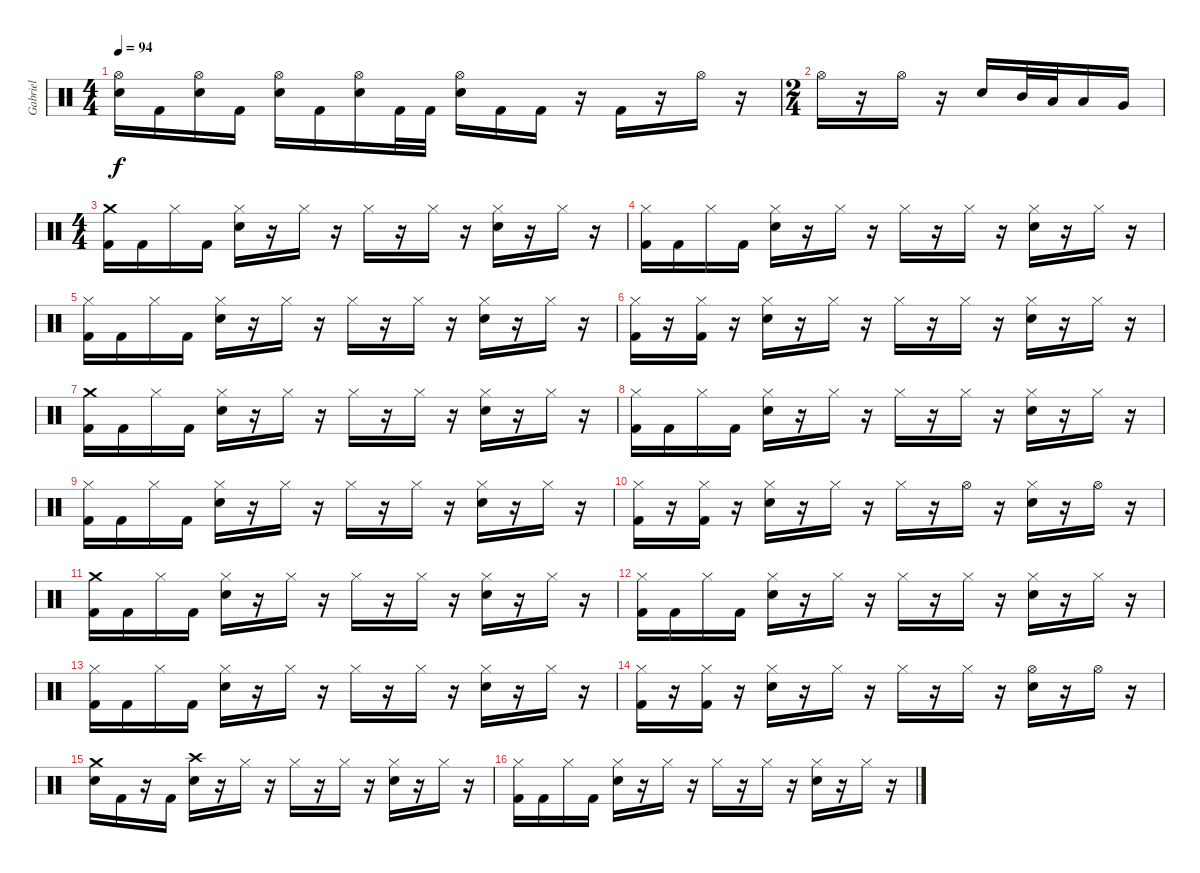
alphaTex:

\track ("Gabriel" "Gabriel") {instrument percussion}
\staff {score}
\articulation defaults
\ts (4 4)
\tempo 94
\clef neutral
\ks c
("Hi-Hat (open)" "Electric Snare (hit)").16{dy f} "Kick (hit) 2".16 ("Hi-Hat (open)" "Electric Snare (hit)").16 "Kick (hit) 2".16 ("Hi-Hat (open)" "Electric Snare (hit)").16 "Kick (hit) 2".16 ("Hi-Hat (open)" "Electric Snare (hit)").16 "Kick (hit) 2".32 "Kick (hit) 2".32 ("Hi-Hat (open)" "Electric Snare (hit)").16 "Kick (hit) 2".16 "Kick (hit) 2".16 r.16 "Kick (hit) 2".16 r.16 "Hi-Hat (open)".16 r.16 |
\ts (2 4)
"Hi-Hat (open)".16 r.16 "Hi-Hat (open)".16 r.16 "Electric Snare (hit)".16 "Mid Tom (hit)".32 "Low Tom (hit)".32 "Low Tom (hit)".16 "Very Low Tom (hit)".16 |
\ts (4 4)
("Crash medium (hit)" "Kick (hit) 2").16 "Kick (hit) 2".16 "Hi-Hat (closed)".16 "Kick (hit) 2".16 ("Hi-Hat (closed)" "Electric Snare (hit)").16 r.16 "Hi-Hat (closed)".16 r.16 "Hi-Hat (closed)".16 r.16 "Hi-Hat (closed)".16 r.16 ("Hi-Hat (closed)" "Electric Snare (hit)").16 r.16 "Hi-Hat (closed)".16 r.16 |
("Hi-Hat (closed)" "Kick (hit) 2").16 "Kick (hit) 2".16 "Hi-Hat (closed)".16 "Kick (hit) 2".16 ("Hi-Hat (closed)" "Electric Snare (hit)").16 r.16 "Hi-Hat (closed)".16 r.16 "Hi-Hat (closed)".16 r.16 "Hi-Hat (closed)".16 r.16 ("Hi-Hat (closed)" "Electric Snare (hit)").16 r.16 "Hi-Hat (closed)".16 r.16 |
("Hi-Hat (closed)" "Kick (hit) 2").16 "Kick (hit) 2".16 "Hi-Hat (closed)".16 "Kick (hit) 2".16 ("Hi-Hat (closed)" "Electric Snare (hit)").16 r.16 "Hi-Hat (closed)".16 r.16 "Hi-Hat (closed)".16 r.16 "Hi-Hat (closed)".16 r.16 ("Hi-Hat (closed)" "Electric Snare (hit)").16 r.16 "Hi-Hat (closed)".16 r.16 |
("Hi-Hat (closed)" "Kick (hit) 2").16 r.16 ("Hi-Hat (closed)" "Kick (hit) 2").16 r.16 ("Hi-Hat (closed)" "Electric Snare (hit)").16 r.16 "Hi-Hat (closed)".16 r.16 "Hi-Hat (closed)".16 r.16 "Hi-Hat (closed)".16 r.16 ("Hi-Hat (closed)" "Electric Snare (hit)").16 r.16 "Hi-Hat (closed)".16 r.16 |
("Crash medium (hit)" "Kick (hit) 2").16 "Kick (hit) 2".16 "Hi-Hat (closed)".16 "Kick (hit) 2".16 ("Hi-Hat (closed)" "Electric Snare (hit)").16 r.16 "Hi-Hat (closed)".16 r.16 "Hi-Hat (closed)".16 r.16 "Hi-Hat (closed)".16 r.16 ("Hi-Hat (closed)" "Electric Snare (hit)").16 r.16 "Hi-Hat (closed)".16 r.16 |
("Hi-Hat (closed)" "Kick (hit) 2").16 "Kick (hit) 2".16 "Hi-Hat (closed)".16 "Kick (hit) 2".16 ("Hi-Hat (closed)" "Electric Snare (hit)").16 r.16 "Hi-Hat (closed)".16 r.16 "Hi-Hat (closed)".16 r.16 "Hi-Hat (closed)".16 r.16 ("Hi-Hat (closed)" "Electric Snare (hit)").16 r.16 "Hi-Hat (closed)".16 r.16 |
("Hi-Hat (closed)" "Kick (hit) 2").16 "Kick (hit) 2".16 "Hi-Hat (closed)".16 "Kick (hit) 2".16 ("Hi-Hat (closed)" "Electric Snare (hit)").16 r.16 "Hi-Hat (closed)".16 r.16 "Hi-Hat (closed)".16 r.16 "Hi-Hat (closed)".16 r.16 ("Hi-Hat (closed)" "Electric Snare (hit)").16 r.16 "Hi-Hat (closed)".16 r.16 |
("Hi-Hat (closed)" "Kick (hit) 2").16 r.16 ("Hi-Hat (closed)" "Kick (hit) 2").16 r.16 ("Hi-Hat (closed)" "Electric Snare (hit)").16 r.16 "Hi-Hat (closed)".16 r.16 "Hi-Hat (closed)".16 r.16 "Hi-Hat (open)".16 r.16 ("Hi-Hat (closed)" "Electric Snare (hit)").16 r.16 "Hi-Hat (open)".16 r.16 |
("Crash medium (hit)" "Kick (hit) 2").16 "Kick (hit) 2".16 "Hi-Hat (closed)".16 "Kick (hit) 2".16 ("Hi-Hat (closed)" "Electric Snare (hit)").16 r.16 "Hi-Hat (closed)".16 r.16 "Hi-Hat (closed)".16 r.16 "Hi-Hat (closed)".16 r.16 ("Hi-Hat (closed)" "Electric Snare (hit)").16 r.16 "Hi-Hat (closed)".16 r.16 |
("Hi-Hat (closed)" "Kick (hit) 2").16 "Kick (hit) 2".16 "Hi-Hat (closed)".16 "Kick (hit) 2".16 ("Hi-Hat (closed)" "Electric Snare (hit)").16 r.16 "Hi-Hat (closed)".16 r.16 "Hi-Hat (closed)".16 r.16 "Hi-Hat (closed)".16 r.16 ("Hi-Hat (closed)" "Electric Snare (hit)").16 r.16 "Hi-Hat (closed)".16 r.16 |
("Hi-Hat (closed)" "Kick (hit) 2").16 "Kick (hit) 2".16 "Hi-Hat (closed)".16 "Kick (hit) 2".16 ("Hi-Hat (closed)" "Electric Snare (hit)").16 r.16 "Hi-Hat (closed)".16 r.16 "Hi-Hat (closed)".16 r.16 "Hi-Hat (closed)".16 r.16 ("Hi-Hat (closed)" "Electric Snare (hit)").16 r.16 "Hi-Hat (closed)".16 r.16 |
("Hi-Hat (closed)" "Kick (hit) 2").16 r.16 ("Hi-Hat (closed)" "Kick (hit) 2").16 r.16 ("Hi-Hat (closed)" "Electric Snare (hit)").16 r.16 "Hi-Hat (closed)".16 r.16 "Hi-Hat (closed)".16 r.16 "Hi-Hat (closed)".16 r.16 ("Hi-Hat (open)" "Electric Snare (hit)").16 r.16 "Hi-Hat (open)".16 r.16 |
("Crash medium (hit)" "Electric Snare (hit)").16 "Kick (hit) 2".16 r.16 "Kick (hit) 2".16 ("Crash high (hit)" "Electric Snare (hit)").16 r.16 "Hi-Hat (closed)".16 r.16 "Hi-Hat (closed)".16 r.16 "Hi-Hat (closed)".16 r.16 ("Hi-Hat (closed)" "Electric Snare (hit)").16 r.16 "Hi-Hat (closed)".16 r.16 |
("Hi-Hat (closed)" "Kick (hit) 2").16 "Kick (hit) 2".16 "Hi-Hat (closed)".16 "Kick (hit) 2".16 ("Hi-Hat (closed)" "Electric Snare (hit)").16 r.16 "Hi-Hat (closed)".16 r.16 "Hi-Hat (closed)".16 r.16 "Hi-Hat (closed)".16 r.16 ("Hi-Hat (closed)" "Electric Snare (hit)").16 r.16 "Hi-Hat (closed)".16 r.16
